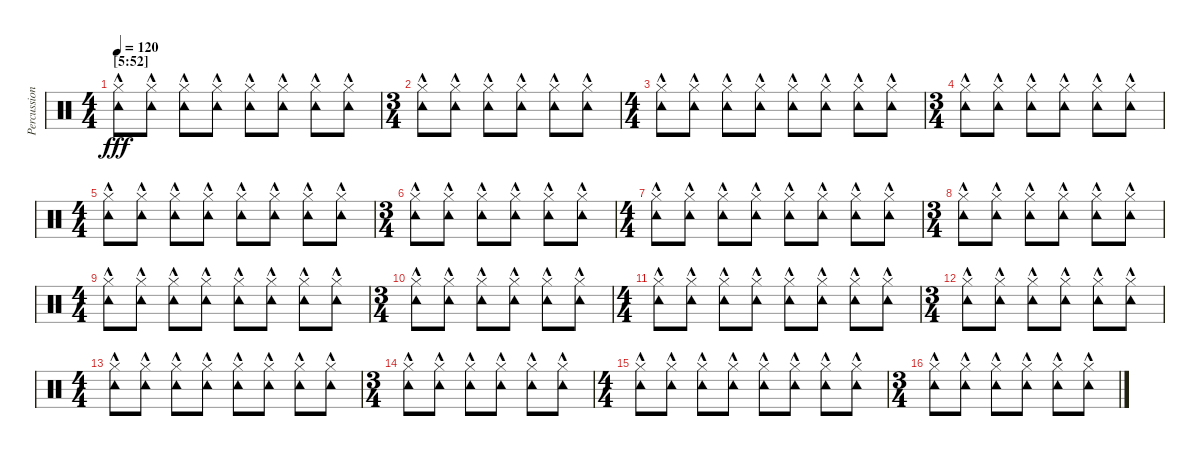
\track ("Percussion" "Percussion") {instrument percussion}
\staff {score}
\articulation defaults
\ts (4 4)
\section ("" "[5:52]")
\tempo 120
\clef neutral
\ks c
("Tambourine (hit)"{hac} "Hi-Hat (closed)").8{dy fff} ("Tambourine (hit)"{hac} "Hi-Hat (closed)").8 ("Tambourine (hit)"{hac} "Hi-Hat (closed)").8 ("Tambourine (hit)"{hac} "Hi-Hat (closed)").8 ("Tambourine (hit)"{hac} "Hi-Hat (closed)").8 ("Tambourine (hit)"{hac} "Hi-Hat (closed)").8 ("Tambourine (hit)"{hac} "Hi-Hat (closed)").8 ("Tambourine (hit)"{hac} "Hi-Hat (closed)").8 |
\ts (3 4)
("Tambourine (hit)"{hac} "Hi-Hat (closed)").8 ("Tambourine (hit)"{hac} "Hi-Hat (closed)").8 ("Tambourine (hit)"{hac} "Hi-Hat (closed)").8 ("Tambourine (hit)"{hac} "Hi-Hat (closed)").8 ("Tambourine (hit)"{hac} "Hi-Hat (closed)").8 ("Tambourine (hit)"{hac} "Hi-Hat (closed)").8 |
\ts (4 4)
("Tambourine (hit)"{hac} "Hi-Hat (closed)").8 ("Tambourine (hit)"{hac} "Hi-Hat (closed)").8 ("Tambourine (hit)"{hac} "Hi-Hat (closed)").8 ("Tambourine (hit)"{hac} "Hi-Hat (closed)").8 ("Tambourine (hit)"{hac} "Hi-Hat (closed)").8 ("Tambourine (hit)"{hac} "Hi-Hat (closed)").8 ("Tambourine (hit)"{hac} "Hi-Hat (closed)").8 ("Tambourine (hit)"{hac} "Hi-Hat (closed)").8 |
\ts (3 4)
("Tambourine (hit)"{hac} "Hi-Hat (closed)").8 ("Tambourine (hit)"{hac} "Hi-Hat (closed)").8 ("Tambourine (hit)"{hac} "Hi-Hat (closed)").8 ("Tambourine (hit)"{hac} "Hi-Hat (closed)").8 ("Tambourine (hit)"{hac} "Hi-Hat (closed)").8 ("Tambourine (hit)"{hac} "Hi-Hat (closed)").8 |
\ts (4 4)
("Tambourine (hit)"{hac} "Hi-Hat (closed)").8 ("Tambourine (hit)"{hac} "Hi-Hat (closed)").8 ("Tambourine (hit)"{hac} "Hi-Hat (closed)").8 ("Tambourine (hit)"{hac} "Hi-Hat (closed)").8 ("Tambourine (hit)"{hac} "Hi-Hat (closed)").8 ("Tambourine (hit)"{hac} "Hi-Hat (closed)").8 ("Tambourine (hit)"{hac} "Hi-Hat (closed)").8 ("Tambourine (hit)"{hac} "Hi-Hat (closed)").8 |
\ts (3 4)
("Tambourine (hit)"{hac} "Hi-Hat (closed)").8 ("Tambourine (hit)"{hac} "Hi-Hat (closed)").8 ("Tambourine (hit)"{hac} "Hi-Hat (closed)").8 ("Tambourine (hit)"{hac} "Hi-Hat (closed)").8 ("Tambourine (hit)"{hac} "Hi-Hat (closed)").8 ("Tambourine (hit)"{hac} "Hi-Hat (closed)").8 |
\ts (4 4)
("Tambourine (hit)"{hac} "Hi-Hat (closed)").8 ("Tambourine (hit)"{hac} "Hi-Hat (closed)").8 ("Tambourine (hit)"{hac} "Hi-Hat (closed)").8 ("Tambourine (hit)"{hac} "Hi-Hat (closed)").8 ("Tambourine (hit)"{hac} "Hi-Hat (closed)").8 ("Tambourine (hit)"{hac} "Hi-Hat (closed)").8 ("Tambourine (hit)"{hac} "Hi-Hat (closed)").8 ("Tambourine (hit)"{hac} "Hi-Hat (closed)").8 |
\ts (3 4)
("Tambourine (hit)"{hac} "Hi-Hat (closed)").8 ("Tambourine (hit)"{hac} "Hi-Hat (closed)").8 ("Tambourine (hit)"{hac} "Hi-Hat (closed)").8 ("Tambourine (hit)"{hac} "Hi-Hat (closed)").8 ("Tambourine (hit)"{hac} "Hi-Hat (closed)").8 ("Tambourine (hit)"{hac} "Hi-Hat (closed)").8 |
\ts (4 4)
("Tambourine (hit)"{hac} "Hi-Hat (closed)").8 ("Tambourine (hit)"{hac} "Hi-Hat (closed)").8 ("Tambourine (hit)"{hac} "Hi-Hat (closed)").8 ("Tambourine (hit)"{hac} "Hi-Hat (closed)").8 ("Tambourine (hit)"{hac} "Hi-Hat (closed)").8 ("Tambourine (hit)"{hac} "Hi-Hat (closed)").8 ("Tambourine (hit)"{hac} "Hi-Hat (closed)").8 ("Tambourine (hit)"{hac} "Hi-Hat (closed)").8 |
\ts (3 4)
("Tambourine (hit)"{hac} "Hi-Hat (closed)").8 ("Tambourine (hit)"{hac} "Hi-Hat (closed)").8 ("Tambourine (hit)"{hac} "Hi-Hat (closed)").8 ("Tambourine (hit)"{hac} "Hi-Hat (closed)").8 ("Tambourine (hit)"{hac} "Hi-Hat (closed)").8 ("Tambourine (hit)"{hac} "Hi-Hat (closed)").8 |
\ts (4 4)
("Tambourine (hit)"{hac} "Hi-Hat (closed)").8 ("Tambourine (hit)"{hac} "Hi-Hat (closed)").8 ("Tambourine (hit)"{hac} "Hi-Hat (closed)").8 ("Tambourine (hit)"{hac} "Hi-Hat (closed)").8 ("Tambourine (hit)"{hac} "Hi-Hat (closed)").8 ("Tambourine (hit)"{hac} "Hi-Hat (closed)").8 ("Tambourine (hit)"{hac} "Hi-Hat (closed)").8 ("Tambourine (hit)"{hac} "Hi-Hat (closed)").8 |
\ts (3 4)
("Tambourine (hit)"{hac} "Hi-Hat (closed)").8 ("Tambourine (hit)"{hac} "Hi-Hat (closed)").8 ("Tambourine (hit)"{hac} "Hi-Hat (closed)").8 ("Tambourine (hit)"{hac} "Hi-Hat (closed)").8 ("Tambourine (hit)"{hac} "Hi-Hat (closed)").8 ("Tambourine (hit)"{hac} "Hi-Hat (closed)").8 |
\ts (4 4)
("Tambourine (hit)"{hac} "Hi-Hat (closed)").8 ("Tambourine (hit)"{hac} "Hi-Hat (closed)").8 ("Tambourine (hit)"{hac} "Hi-Hat (closed)").8 ("Tambourine (hit)"{hac} "Hi-Hat (closed)").8 ("Tambourine (hit)"{hac} "Hi-Hat (closed)").8 ("Tambourine (hit)"{hac} "Hi-Hat (closed)").8 ("Tambourine (hit)"{hac} "Hi-Hat (closed)").8 ("Tambourine (hit)"{hac} "Hi-Hat (closed)").8 |
\ts (3 4)
("Tambourine (hit)"{hac} "Hi-Hat (closed)").8 ("Tambourine (hit)"{hac} "Hi-Hat (closed)").8 ("Tambourine (hit)"{hac} "Hi-Hat (closed)").8 ("Tambourine (hit)"{hac} "Hi-Hat (closed)").8 ("Tambourine (hit)"{hac} "Hi-Hat (closed)").8 ("Tambourine (hit)"{hac} "Hi-Hat (closed)").8 |
\ts (4 4)
("Tambourine (hit)"{hac} "Hi-Hat (closed)").8 ("Tambourine (hit)"{hac} "Hi-Hat (closed)").8 ("Tambourine (hit)"{hac} "Hi-Hat (closed)").8 ("Tambourine (hit)"{hac} "Hi-Hat (closed)").8 ("Tambourine (hit)"{hac} "Hi-Hat (closed)").8 ("Tambourine (hit)"{hac} "Hi-Hat (closed)").8 ("Tambourine (hit)"{hac} "Hi-Hat (closed)").8 ("Tambourine (hit)"{hac} "Hi-Hat (closed)").8 |
\ts (3 4)
("Tambourine (hit)"{hac} "Hi-Hat (closed)").8 ("Tambourine (hit)"{hac} "Hi-Hat (closed)").8 ("Tambourine (hit)"{hac} "Hi-Hat (closed)").8 ("Tambourine (hit)"{hac} "Hi-Hat (closed)").8 ("Tambourine (hit)"{hac} "Hi-Hat (closed)").8 ("Tambourine (hit)"{hac} "Hi-Hat (closed)").8
